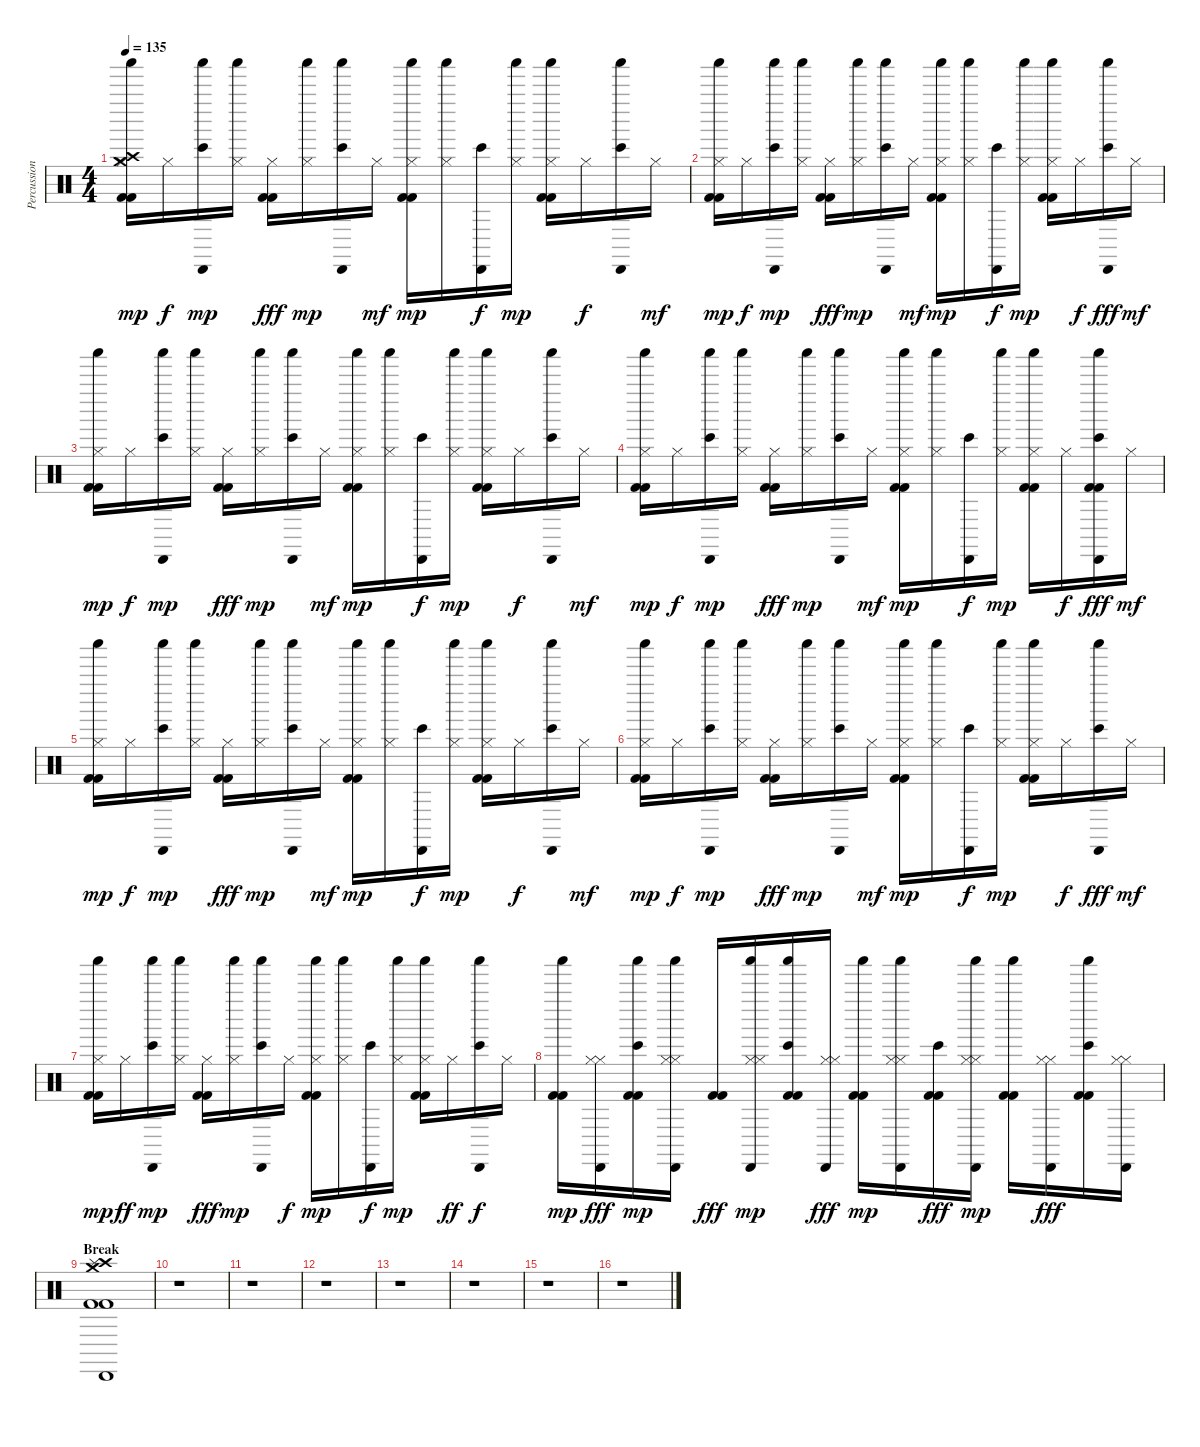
\track ("Percussion" "Percussion") {instrument percussion}
\staff {score}
\articulation defaults
\ts (4 4)
\tempo 135
\clef neutral
\ks c
("Crash medium (hit)" "Hi-Hat (closed)" "Crash high (hit)" "Kick (hit) 2" "Kick (hit) 2" "Shaker (hit)").16{dy mp} "Hi-Hat (closed)".16{dy f} ("Cabasa (hit)" "Bongo High (hit)" "Shaker (hit)").16{dy mp} ("Hi-Hat (closed)" "Shaker (hit)").16 ("Hi-Hat (closed)" "Kick (hit) 2" "Kick (hit) 2").16{dy fff} ("Hi-Hat (closed)" "Shaker (hit)").16{dy mp} ("Cabasa (hit)" "Bongo High (hit)" "Shaker (hit)").16 "Hi-Hat (closed)".16{dy mf} ("Hi-Hat (closed)" "Kick (hit) 2" "Kick (hit) 2" "Shaker (hit)").16{dy mp} ("Hi-Hat (closed)" "Shaker (hit)").16 ("Cabasa (hit)" "Bongo High (hit)").16{dy f} ("Hi-Hat (closed)" "Shaker (hit)").16{dy mp} ("Hi-Hat (closed)" "Kick (hit) 2" "Kick (hit) 2" "Shaker (hit)").16 "Hi-Hat (closed)".16{dy f} ("Cabasa (hit)" "Bongo High (hit)" "Shaker (hit)").16 "Hi-Hat (closed)".16{dy mf} |
("Hi-Hat (closed)" "Kick (hit) 2" "Kick (hit) 2" "Shaker (hit)").16{dy mp} "Hi-Hat (closed)".16{dy f} ("Cabasa (hit)" "Bongo High (hit)" "Shaker (hit)").16{dy mp} ("Hi-Hat (closed)" "Shaker (hit)").16 ("Hi-Hat (closed)" "Kick (hit) 2" "Kick (hit) 2").16{dy fff} ("Hi-Hat (closed)" "Shaker (hit)").16{dy mp} ("Cabasa (hit)" "Bongo High (hit)" "Shaker (hit)").16 "Hi-Hat (closed)".16{dy mf} ("Hi-Hat (closed)" "Kick (hit) 2" "Kick (hit) 2" "Shaker (hit)").16{dy mp} ("Hi-Hat (closed)" "Shaker (hit)").16 ("Cabasa (hit)" "Bongo High (hit)").16{dy f} ("Hi-Hat (closed)" "Shaker (hit)").16{dy mp} ("Hi-Hat (closed)" "Kick (hit) 2" "Kick (hit) 2" "Shaker (hit)").16 "Hi-Hat (closed)".16{dy f} ("Cabasa (hit)" "Bongo High (hit)" "Shaker (hit)").16{dy fff} "Hi-Hat (closed)".16{dy mf} |
("Hi-Hat (closed)" "Kick (hit) 2" "Kick (hit) 2" "Shaker (hit)").16{dy mp} "Hi-Hat (closed)".16{dy f} ("Cabasa (hit)" "Bongo High (hit)" "Shaker (hit)").16{dy mp} ("Hi-Hat (closed)" "Shaker (hit)").16 ("Hi-Hat (closed)" "Kick (hit) 2" "Kick (hit) 2").16{dy fff} ("Hi-Hat (closed)" "Shaker (hit)").16{dy mp} ("Cabasa (hit)" "Bongo High (hit)" "Shaker (hit)").16 "Hi-Hat (closed)".16{dy mf} ("Hi-Hat (closed)" "Kick (hit) 2" "Kick (hit) 2" "Shaker (hit)").16{dy mp} ("Hi-Hat (closed)" "Shaker (hit)").16 ("Cabasa (hit)" "Bongo High (hit)").16{dy f} ("Hi-Hat (closed)" "Shaker (hit)").16{dy mp} ("Hi-Hat (closed)" "Kick (hit) 2" "Kick (hit) 2" "Shaker (hit)").16 "Hi-Hat (closed)".16{dy f} ("Cabasa (hit)" "Bongo High (hit)" "Shaker (hit)").16 "Hi-Hat (closed)".16{dy mf} |
("Hi-Hat (closed)" "Kick (hit) 2" "Kick (hit) 2" "Shaker (hit)").16{dy mp} "Hi-Hat (closed)".16{dy f} ("Cabasa (hit)" "Bongo High (hit)" "Shaker (hit)").16{dy mp} ("Hi-Hat (closed)" "Shaker (hit)").16 ("Hi-Hat (closed)" "Kick (hit) 2" "Kick (hit) 2").16{dy fff} ("Hi-Hat (closed)" "Shaker (hit)").16{dy mp} ("Cabasa (hit)" "Bongo High (hit)" "Shaker (hit)").16 "Hi-Hat (closed)".16{dy mf} ("Hi-Hat (closed)" "Kick (hit) 2" "Kick (hit) 2" "Shaker (hit)").16{dy mp} ("Hi-Hat (closed)" "Shaker (hit)").16 ("Cabasa (hit)" "Bongo High (hit)").16{dy f} ("Hi-Hat (closed)" "Shaker (hit)").16{dy mp} ("Hi-Hat (closed)" "Kick (hit) 2" "Kick (hit) 2" "Shaker (hit)").16 "Hi-Hat (closed)".16{dy f} ("Cabasa (hit)" "Bongo High (hit)" "Kick (hit) 2" "Kick (hit) 2" "Shaker (hit)").16{dy fff} "Hi-Hat (closed)".16{dy mf} |
("Hi-Hat (closed)" "Kick (hit) 2" "Kick (hit) 2" "Shaker (hit)").16{dy mp} "Hi-Hat (closed)".16{dy f} ("Cabasa (hit)" "Bongo High (hit)" "Shaker (hit)").16{dy mp} ("Hi-Hat (closed)" "Shaker (hit)").16 ("Hi-Hat (closed)" "Kick (hit) 2" "Kick (hit) 2").16{dy fff} ("Hi-Hat (closed)" "Shaker (hit)").16{dy mp} ("Cabasa (hit)" "Bongo High (hit)" "Shaker (hit)").16 "Hi-Hat (closed)".16{dy mf} ("Hi-Hat (closed)" "Kick (hit) 2" "Kick (hit) 2" "Shaker (hit)").16{dy mp} ("Hi-Hat (closed)" "Shaker (hit)").16 ("Cabasa (hit)" "Bongo High (hit)").16{dy f} ("Hi-Hat (closed)" "Shaker (hit)").16{dy mp} ("Hi-Hat (closed)" "Kick (hit) 2" "Kick (hit) 2" "Shaker (hit)").16 "Hi-Hat (closed)".16{dy f} ("Cabasa (hit)" "Bongo High (hit)" "Shaker (hit)").16 "Hi-Hat (closed)".16{dy mf} |
("Hi-Hat (closed)" "Kick (hit) 2" "Kick (hit) 2" "Shaker (hit)").16{dy mp} "Hi-Hat (closed)".16{dy f} ("Cabasa (hit)" "Bongo High (hit)" "Shaker (hit)").16{dy mp} ("Hi-Hat (closed)" "Shaker (hit)").16 ("Hi-Hat (closed)" "Kick (hit) 2" "Kick (hit) 2").16{dy fff} ("Hi-Hat (closed)" "Shaker (hit)").16{dy mp} ("Cabasa (hit)" "Bongo High (hit)" "Shaker (hit)").16 "Hi-Hat (closed)".16{dy mf} ("Hi-Hat (closed)" "Kick (hit) 2" "Kick (hit) 2" "Shaker (hit)").16{dy mp} ("Hi-Hat (closed)" "Shaker (hit)").16 ("Cabasa (hit)" "Bongo High (hit)").16{dy f} ("Hi-Hat (closed)" "Shaker (hit)").16{dy mp} ("Hi-Hat (closed)" "Kick (hit) 2" "Kick (hit) 2" "Shaker (hit)").16 "Hi-Hat (closed)".16{dy f} ("Cabasa (hit)" "Bongo High (hit)" "Shaker (hit)").16{dy fff} "Hi-Hat (closed)".16{dy mf} |
("Hi-Hat (closed)" "Kick (hit) 2" "Kick (hit) 2" "Shaker (hit)").16{dy mp} "Hi-Hat (closed)".16{dy ff} ("Cabasa (hit)" "Bongo High (hit)" "Shaker (hit)").16{dy mp} ("Hi-Hat (closed)" "Shaker (hit)").16 ("Hi-Hat (closed)" "Kick (hit) 2" "Kick (hit) 2").16{dy fff} ("Hi-Hat (closed)" "Shaker (hit)").16{dy mp} ("Cabasa (hit)" "Bongo High (hit)" "Shaker (hit)").16 "Hi-Hat (closed)".16{dy f} ("Hi-Hat (closed)" "Kick (hit) 2" "Kick (hit) 2" "Shaker (hit)").16{dy mp} ("Hi-Hat (closed)" "Shaker (hit)").16 ("Cabasa (hit)" "Bongo High (hit)").16{dy f} ("Hi-Hat (closed)" "Shaker (hit)").16{dy mp} ("Hi-Hat (closed)" "Kick (hit) 2" "Kick (hit) 2" "Shaker (hit)").16 "Hi-Hat (closed)".16{dy ff} ("Cabasa (hit)" "Bongo High (hit)" "Shaker (hit)").16{dy f} "Hi-Hat (closed)".16 |
("Kick (hit) 2" "Kick (hit) 2" "Shaker (hit)").16{dy mp} ("Cabasa (hit)" "Hi-Hat (closed)" "Hi-Hat (closed)").16{dy fff} ("Bongo High (hit)" "Kick (hit) 2" "Kick (hit) 2" "Shaker (hit)").16{dy mp} ("Cabasa (hit)" "Hi-Hat (closed)" "Hi-Hat (closed)" "Shaker (hit)").16 ("Kick (hit) 2" "Kick (hit) 2").16{dy fff} ("Cabasa (hit)" "Hi-Hat (closed)" "Hi-Hat (closed)" "Shaker (hit)").16{dy mp} ("Bongo High (hit)" "Kick (hit) 2" "Kick (hit) 2" "Shaker (hit)").16 ("Cabasa (hit)" "Hi-Hat (closed)" "Hi-Hat (closed)").16{dy fff} ("Kick (hit) 2" "Kick (hit) 2" "Shaker (hit)").16{dy mp} ("Cabasa (hit)" "Hi-Hat (closed)" "Hi-Hat (closed)" "Shaker (hit)").16 ("Bongo High (hit)" "Kick (hit) 2" "Kick (hit) 2").16{dy fff} ("Cabasa (hit)" "Hi-Hat (closed)" "Hi-Hat (closed)" "Shaker (hit)").16{dy mp} ("Kick (hit) 2" "Kick (hit) 2" "Shaker (hit)").16 ("Cabasa (hit)" "Hi-Hat (closed)" "Hi-Hat (closed)").16{dy fff} ("Bongo High (hit)" "Kick (hit) 2" "Kick (hit) 2" "Shaker (hit)").16 ("Cabasa (hit)" "Hi-Hat (closed)" "Hi-Hat (closed)").16 |
\section ("" "Break")
("Crash high (hit)" "Cabasa (hit)" "Crash medium (hit)" "Kick (hit) 2" "Kick (hit) 2" "Splash (hit)").1 |
r.1 |
r.1 |
r.1 |
r.1 |
r.1 |
r.1 |
r.1
